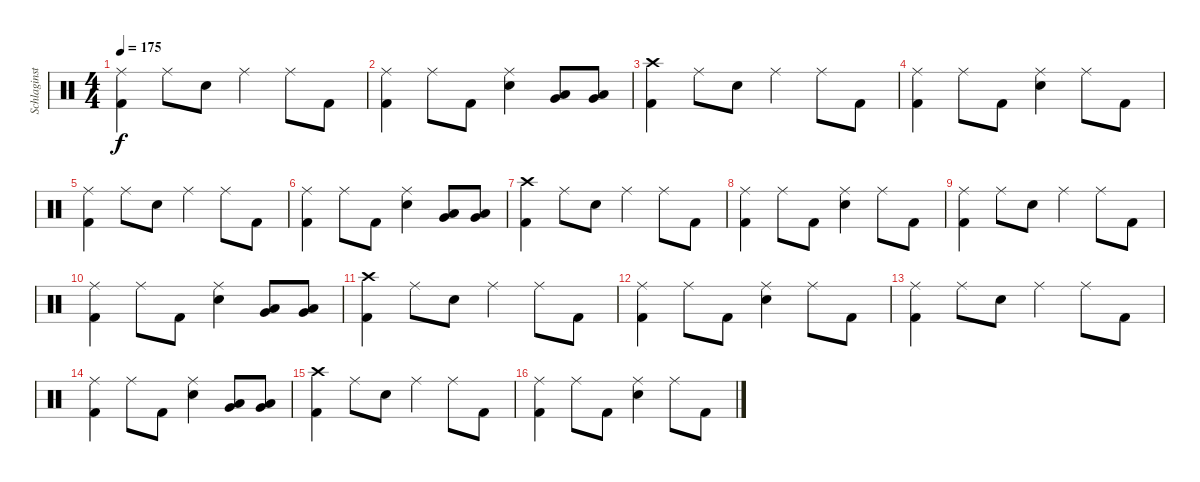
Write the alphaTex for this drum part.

\track ("Schlaginstrumente - Auswahl" "Schlaginst") {instrument percussion}
\staff {score}
\articulation defaults
\ts (4 4)
\tempo 175
\clef neutral
\ks c
("Kick (hit) 2" "Ride (middle)").4{dy f} "Ride (middle)".8 "Electric Snare (hit)".8 "Ride (middle)".4 "Ride (middle)".8 "Kick (hit) 2".8 |
("Kick (hit) 2" "Ride (middle)").4 "Ride (middle)".8 "Kick (hit) 2".8 ("Electric Snare (hit)" "Ride (middle)").4 ("Very Low Tom (hit)" "Low Floor Tom (hit)").8 ("Low Floor Tom (hit)" "Very Low Tom (hit)").8 |
("Kick (hit) 2" "Crash high (hit)").4 "Ride (middle)".8 "Electric Snare (hit)".8 "Ride (middle)".4 "Ride (middle)".8 "Kick (hit) 2".8 |
("Kick (hit) 2" "Ride (middle)").4 "Ride (middle)".8 "Kick (hit) 2".8 ("Electric Snare (hit)" "Ride (middle)").4 "Ride (middle)".8 "Kick (hit) 2".8 |
("Kick (hit) 2" "Ride (middle)").4 "Ride (middle)".8 "Electric Snare (hit)".8 "Ride (middle)".4 "Ride (middle)".8 "Kick (hit) 2".8 |
("Kick (hit) 2" "Ride (middle)").4 "Ride (middle)".8 "Kick (hit) 2".8 ("Electric Snare (hit)" "Ride (middle)").4 ("Very Low Tom (hit)" "Low Floor Tom (hit)").8 ("Low Floor Tom (hit)" "Very Low Tom (hit)").8 |
("Kick (hit) 2" "Crash high (hit)").4 "Ride (middle)".8 "Electric Snare (hit)".8 "Ride (middle)".4 "Ride (middle)".8 "Kick (hit) 2".8 |
("Kick (hit) 2" "Ride (middle)").4 "Ride (middle)".8 "Kick (hit) 2".8 ("Electric Snare (hit)" "Ride (middle)").4 "Ride (middle)".8 "Kick (hit) 2".8 |
("Kick (hit) 2" "Ride (middle)").4 "Ride (middle)".8 "Electric Snare (hit)".8 "Ride (middle)".4 "Ride (middle)".8 "Kick (hit) 2".8 |
("Kick (hit) 2" "Ride (middle)").4 "Ride (middle)".8 "Kick (hit) 2".8 ("Electric Snare (hit)" "Ride (middle)").4 ("Very Low Tom (hit)" "Low Floor Tom (hit)").8 ("Low Floor Tom (hit)" "Very Low Tom (hit)").8 |
("Kick (hit) 2" "Crash high (hit)").4 "Ride (middle)".8 "Electric Snare (hit)".8 "Ride (middle)".4 "Ride (middle)".8 "Kick (hit) 2".8 |
("Kick (hit) 2" "Ride (middle)").4 "Ride (middle)".8 "Kick (hit) 2".8 ("Electric Snare (hit)" "Ride (middle)").4 "Ride (middle)".8 "Kick (hit) 2".8 |
("Kick (hit) 2" "Ride (middle)").4 "Ride (middle)".8 "Electric Snare (hit)".8 "Ride (middle)".4 "Ride (middle)".8 "Kick (hit) 2".8 |
("Kick (hit) 2" "Ride (middle)").4 "Ride (middle)".8 "Kick (hit) 2".8 ("Electric Snare (hit)" "Ride (middle)").4 ("Very Low Tom (hit)" "Low Floor Tom (hit)").8 ("Low Floor Tom (hit)" "Very Low Tom (hit)").8 |
("Kick (hit) 2" "Crash high (hit)").4 "Ride (middle)".8 "Electric Snare (hit)".8 "Ride (middle)".4 "Ride (middle)".8 "Kick (hit) 2".8 |
("Kick (hit) 2" "Ride (middle)").4 "Ride (middle)".8 "Kick (hit) 2".8 ("Electric Snare (hit)" "Ride (middle)").4 "Ride (middle)".8 "Kick (hit) 2".8
